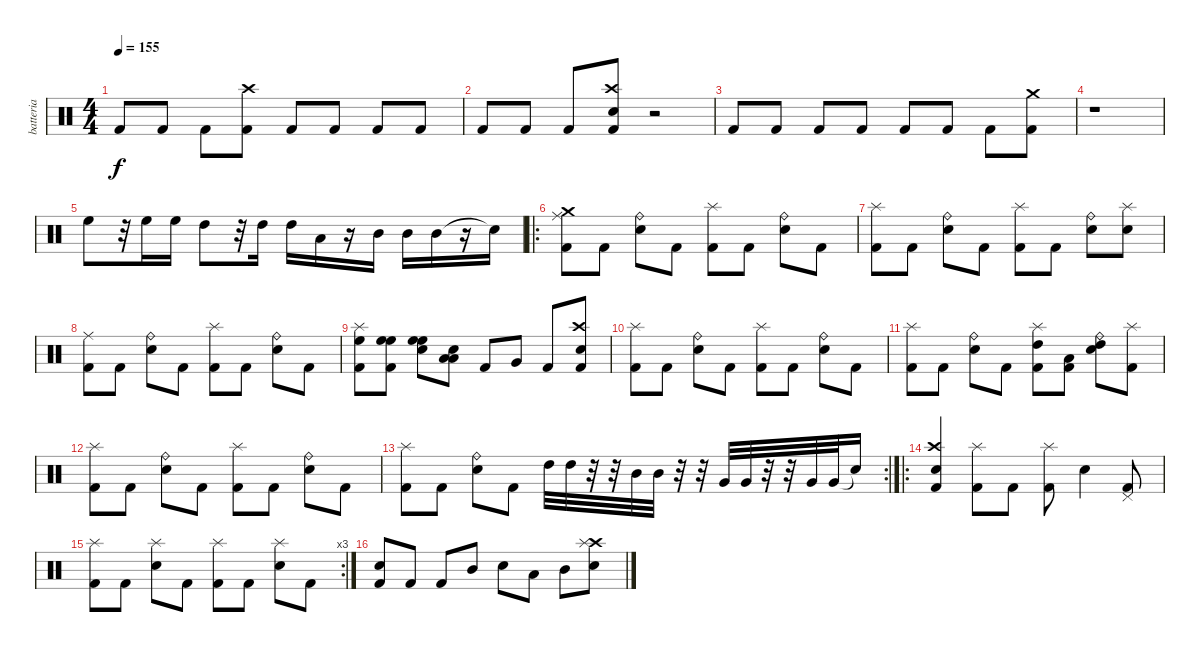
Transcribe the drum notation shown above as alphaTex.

\track ("batteria" "batteria") {instrument percussion}
\staff {score}
\articulation defaults
\ts (4 4)
\tempo 155
\clef neutral
\ks c "Kick (hit) 2".8{dy f} "Kick (hit) 2".8 "Kick (hit) 2".8
("Crash high (hit)" "Kick (hit) 2").8 "Kick (hit) 2".8 "Kick (hit) 2".8 "Kick (hit) 2".8 "Kick (hit) 2".8 |
"Kick (hit) 2".8 "Kick (hit) 2".8 "Kick (hit) 2".8 ("Crash high (hit)" "Electric Snare (hit)" "Kick (hit) 2").8 r.2 |
"Kick (hit) 2".8 "Kick (hit) 2".8 "Kick (hit) 2".8 "Kick (hit) 2".8 "Kick (hit) 2".8 "Kick (hit) 2".8 "Kick (hit) 2".8 ("Crash medium (hit)" "Kick (hit) 2").8 |
r.1 |
"High Floor Tom (hit)".8 r.32 "High Floor Tom (hit)".16 "High Floor Tom (hit)".16 "High Tom (hit)".8 r.32 "High Tom (hit)".16 "High Tom (hit)".16 "Low Tom (hit)".16 r.16 "Mid Tom (hit)".16 "Mid Tom (hit)".16 "Mid Tom (hit)".16 r.16 "Snare (hit)"{t}.16 |
\ro
("Crash medium (hit)" "Ride (middle)" "Kick (hit) 2").8 "Kick (hit) 2".8 ("Ride (bell)" "Electric Snare (hit)").8 "Kick (hit) 2".8 ("Splash (hit)" "Kick (hit) 2").8 "Kick (hit) 2".8 ("Ride (bell)" "Electric Snare (hit)").8 "Kick (hit) 2".8 |
("Splash (hit)" "Kick (hit) 2").8 "Kick (hit) 2".8 ("Ride (bell)" "Electric Snare (hit)").8 "Kick (hit) 2".8 ("Splash (hit)" "Kick (hit) 2").8 "Kick (hit) 2".8 ("Ride (bell)" "Electric Snare (hit)").8 ("Splash (hit)" "Electric Snare (hit)").8 |
("Ride (middle)" "Kick (hit) 2").8 "Kick (hit) 2".8 ("Ride (bell)" "Electric Snare (hit)").8 "Kick (hit) 2".8 ("Splash (hit)" "Kick (hit) 2").8 "Kick (hit) 2".8 ("Ride (bell)" "Electric Snare (hit)").8 "Kick (hit) 2".8 |
("Kick (hit) 2" "Splash (hit)" "High Floor Tom (hit)").8 ("Kick (hit) 2" "High Floor Tom (hit)" "High Floor Tom (hit)").8 ("Electric Snare (hit)" "High Floor Tom (hit)" "High Floor Tom (hit)").8 ("Snare (hit)" "Low Tom (hit)" "Low Tom (hit)").8 "Kick (hit) 2".8 "Very Low Tom (hit)".8 "Kick (hit) 2".8 ("Crash high (hit)" "Electric Snare (hit)" "Kick (hit) 2").8 |
("Splash (hit)" "Kick (hit) 2").8 "Kick (hit) 2".8 ("Ride (bell)" "Electric Snare (hit)").8 "Kick (hit) 2".8 ("Splash (hit)" "Kick (hit) 2").8 "Kick (hit) 2".8 ("Ride (bell)" "Electric Snare (hit)").8 "Kick (hit) 2".8 |
("Splash (hit)" "Kick (hit) 2").8 "Kick (hit) 2".8 ("Ride (bell)" "Electric Snare (hit)").8 "Kick (hit) 2".8 ("Splash (hit)" "High Tom (hit)" "Kick (hit) 2").8 ("Low Tom (hit)" "Kick (hit) 2").8 ("Ride (bell)" "High Tom (hit)" "Electric Snare (hit)").8 ("Splash (hit)" "Kick (hit) 2").8 |
("Splash (hit)" "Kick (hit) 2").8 "Kick (hit) 2".8 ("Ride (bell)" "Electric Snare (hit)").8 "Kick (hit) 2".8 ("Splash (hit)" "Kick (hit) 2").8 "Kick (hit) 2".8 ("Ride (bell)" "Electric Snare (hit)").8 "Kick (hit) 2".8 |
\rc 2
("Splash (hit)" "Kick (hit) 2").8 "Kick (hit) 2".8 ("Ride (bell)" "Electric Snare (hit)").8 "Kick (hit) 2".8 "High Tom (hit)".32 "High Tom (hit)".32 r.32 r.32 "Mid Tom (hit)".32 "Mid Tom (hit)".32 r.32 r.32 "Very Low Tom (hit)".32 "Very Low Tom (hit)".32 r.32 r.32 "Very Low Tom (hit)".32 "Very Low Tom (hit)".32 "Electric Snare (hit)"{t}.16 |
\ro
("Crash high (hit)" "Kick (hit) 2" "Electric Snare (hit)").4 ("Splash (hit)" "Kick (hit) 2").8 "Kick (hit) 2".8 ("Splash (hit)" "Kick (hit) 2").8 "Electric Snare (hit)".4 ("Pedal Hi-Hat (hit)" "Kick (hit) 2").8 |
\rc 3
("Splash (hit)" "Kick (hit) 2").8 "Kick (hit) 2".8 ("Splash (hit)" "Electric Snare (hit)").8 "Kick (hit) 2".8 ("Splash (hit)" "Kick (hit) 2").8 "Kick (hit) 2".8 ("Splash (hit)" "Electric Snare (hit)").8 "Kick (hit) 2".8 |
("Electric Snare (hit)" "Kick (hit) 2").8 "Kick (hit) 2".8 "Kick (hit) 2".8 "Mid Tom (hit)".8 "Electric Snare (hit)".8 "Low Tom (hit)".8 "Mid Tom (hit)".8 ("Crash high (hit)" "Splash (hit)" "Electric Snare (hit)").8
